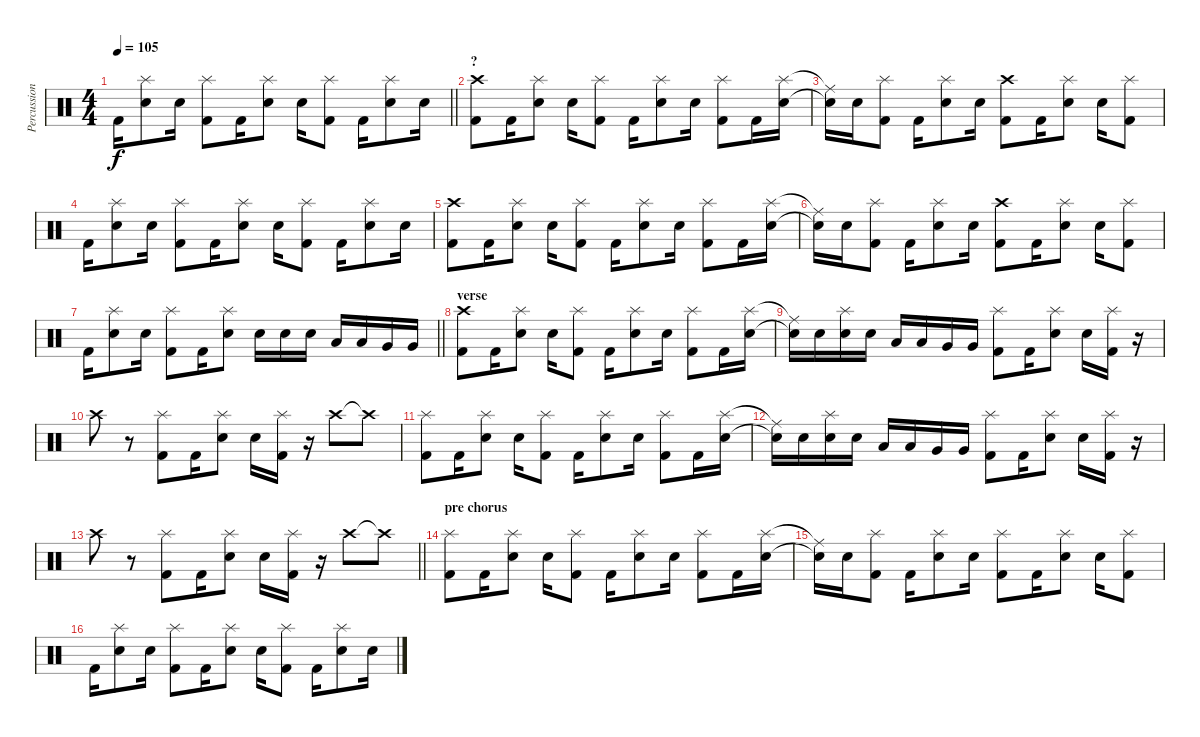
\track ("Percussion" "Percussion") {instrument percussion}
\staff {score}
\articulation defaults
\ts (4 4)
\tempo 105
\clef neutral
\barLineRight lightlight
\ks c "Kick (hit) 2".16{dy f}
("Electric Snare (hit)" "Splash (hit)").8 "Electric Snare (hit)".16 ("Kick (hit) 2" "Splash (hit)").8 "Kick (hit) 2".16 ("Electric Snare (hit)" "Splash (hit)").8 "Electric Snare (hit)".16 ("Kick (hit) 2" "Splash (hit)").8 "Kick (hit) 2".16 ("Electric Snare (hit)" "Splash (hit)").8 "Electric Snare (hit)".16 |
\section ("" "?")
("Kick (hit) 2" "Crash high (hit)").8 "Kick (hit) 2".16 ("Electric Snare (hit)" "Splash (hit)").8 "Electric Snare (hit)".16 ("Kick (hit) 2" "Splash (hit)").8 "Kick (hit) 2".16 ("Electric Snare (hit)" "Splash (hit)").8 "Electric Snare (hit)".16 ("Kick (hit) 2" "Splash (hit)").8 "Kick (hit) 2".16 ("Electric Snare (hit)" "Splash (hit)").16 |
("Electric Snare (hit)"{t} "Ride (middle)"{t}).16 "Electric Snare (hit)".16 ("Kick (hit) 2" "Splash (hit)").8 "Kick (hit) 2".16 ("Electric Snare (hit)" "Splash (hit)").8 "Electric Snare (hit)".16 ("Kick (hit) 2" "Crash high (hit)").8 "Kick (hit) 2".16 ("Electric Snare (hit)" "Splash (hit)").8 "Electric Snare (hit)".16 ("Kick (hit) 2" "Splash (hit)").8 |
"Kick (hit) 2".16 ("Electric Snare (hit)" "Splash (hit)").8 "Electric Snare (hit)".16 ("Kick (hit) 2" "Splash (hit)").8 "Kick (hit) 2".16 ("Electric Snare (hit)" "Splash (hit)").8 "Electric Snare (hit)".16 ("Kick (hit) 2" "Splash (hit)").8 "Kick (hit) 2".16 ("Electric Snare (hit)" "Splash (hit)").8 "Electric Snare (hit)".16 |
("Kick (hit) 2" "Crash high (hit)").8 "Kick (hit) 2".16 ("Electric Snare (hit)" "Splash (hit)").8 "Electric Snare (hit)".16 ("Kick (hit) 2" "Splash (hit)").8 "Kick (hit) 2".16 ("Electric Snare (hit)" "Splash (hit)").8 "Electric Snare (hit)".16 ("Kick (hit) 2" "Splash (hit)").8 "Kick (hit) 2".16 ("Electric Snare (hit)" "Splash (hit)").16 |
("Electric Snare (hit)"{t} "Ride (middle)"{t}).16 "Electric Snare (hit)".16 ("Kick (hit) 2" "Splash (hit)").8 "Kick (hit) 2".16 ("Electric Snare (hit)" "Splash (hit)").8 "Electric Snare (hit)".16 ("Kick (hit) 2" "Crash high (hit)").8 "Kick (hit) 2".16 ("Electric Snare (hit)" "Splash (hit)").8 "Electric Snare (hit)".16 ("Kick (hit) 2" "Splash (hit)").8 |
\barLineRight lightlight "Kick (hit) 2".16
("Electric Snare (hit)" "Splash (hit)").8 "Electric Snare (hit)".16 ("Kick (hit) 2" "Splash (hit)").8 "Kick (hit) 2".16 ("Electric Snare (hit)" "Splash (hit)").8 "Electric Snare (hit)".16 "Electric Snare (hit)".16 "Electric Snare (hit)".16 "Low Floor Tom (hit)".16 "Low Floor Tom (hit)".16 "Very Low Tom (hit)".16 "Very Low Tom (hit)".16 |
\section ("" "verse")
("Kick (hit) 2" "Crash high (hit)").8 "Kick (hit) 2".16 ("Electric Snare (hit)" "Splash (hit)").8 "Electric Snare (hit)".16 ("Kick (hit) 2" "Splash (hit)").8 "Kick (hit) 2".16 ("Electric Snare (hit)" "Splash (hit)").8 "Electric Snare (hit)".16 ("Kick (hit) 2" "Splash (hit)").8 "Kick (hit) 2".16 ("Electric Snare (hit)" "Splash (hit)").16 |
("Electric Snare (hit)"{t} "Ride (middle)"{t}).16 "Electric Snare (hit)".16 ("Electric Snare (hit)" "Splash (hit)").16 "Electric Snare (hit)".16 "Low Floor Tom (hit)".16 "Low Floor Tom (hit)".16 "Very Low Tom (hit)".16 "Very Low Tom (hit)".16 ("Kick (hit) 2" "Splash (hit)").8 "Kick (hit) 2".16 ("Electric Snare (hit)" "Splash (hit)").8 "Electric Snare (hit)".16 ("Kick (hit) 2" "Splash (hit)").16 r.16 |
"Crash high (hit)".8 r.8 ("Kick (hit) 2" "Splash (hit)").8 "Kick (hit) 2".16 ("Electric Snare (hit)" "Splash (hit)").8 "Electric Snare (hit)".16 ("Kick (hit) 2" "Splash (hit)").16 r.16 "Crash high (hit)".8 "Crash high (hit)"{t}.8 |
("Kick (hit) 2" "Splash (hit)").8 "Kick (hit) 2".16 ("Electric Snare (hit)" "Splash (hit)").8 "Electric Snare (hit)".16 ("Kick (hit) 2" "Splash (hit)").8 "Kick (hit) 2".16 ("Electric Snare (hit)" "Splash (hit)").8 "Electric Snare (hit)".16 ("Kick (hit) 2" "Splash (hit)").8 "Kick (hit) 2".16 ("Electric Snare (hit)" "Splash (hit)").16 |
("Electric Snare (hit)"{t} "Ride (middle)"{t}).16 "Electric Snare (hit)".16 ("Electric Snare (hit)" "Splash (hit)").16 "Electric Snare (hit)".16 "Low Floor Tom (hit)".16 "Low Floor Tom (hit)".16 "Very Low Tom (hit)".16 "Very Low Tom (hit)".16 ("Kick (hit) 2" "Splash (hit)").8 "Kick (hit) 2".16 ("Electric Snare (hit)" "Splash (hit)").8 "Electric Snare (hit)".16 ("Kick (hit) 2" "Splash (hit)").16 r.16 |
\barLineRight lightlight "Crash high (hit)".8
r.8 ("Kick (hit) 2" "Splash (hit)").8 "Kick (hit) 2".16 ("Electric Snare (hit)" "Splash (hit)").8 "Electric Snare (hit)".16 ("Kick (hit) 2" "Splash (hit)").16 r.16 "Crash high (hit)".8 "Crash high (hit)"{t}.8 |
\section ("" "pre chorus")
("Kick (hit) 2" "Splash (hit)").8 "Kick (hit) 2".16 ("Electric Snare (hit)" "Splash (hit)").8 "Electric Snare (hit)".16 ("Kick (hit) 2" "Splash (hit)").8 "Kick (hit) 2".16 ("Electric Snare (hit)" "Splash (hit)").8 "Electric Snare (hit)".16 ("Kick (hit) 2" "Splash (hit)").8 "Kick (hit) 2".16 ("Electric Snare (hit)" "Splash (hit)").16 |
("Electric Snare (hit)"{t} "Ride (middle)"{t}).16 "Electric Snare (hit)".16 ("Kick (hit) 2" "Splash (hit)").8 "Kick (hit) 2".16 ("Electric Snare (hit)" "Splash (hit)").8 "Electric Snare (hit)".16 ("Kick (hit) 2" "Splash (hit)").8 "Kick (hit) 2".16 ("Electric Snare (hit)" "Splash (hit)").8 "Electric Snare (hit)".16 ("Kick (hit) 2" "Splash (hit)").8 |
"Kick (hit) 2".16 ("Electric Snare (hit)" "Splash (hit)").8 "Electric Snare (hit)".16 ("Kick (hit) 2" "Splash (hit)").8 "Kick (hit) 2".16 ("Electric Snare (hit)" "Splash (hit)").8 "Electric Snare (hit)".16 ("Kick (hit) 2" "Splash (hit)").8 "Kick (hit) 2".16 ("Electric Snare (hit)" "Splash (hit)").8 "Electric Snare (hit)".16
